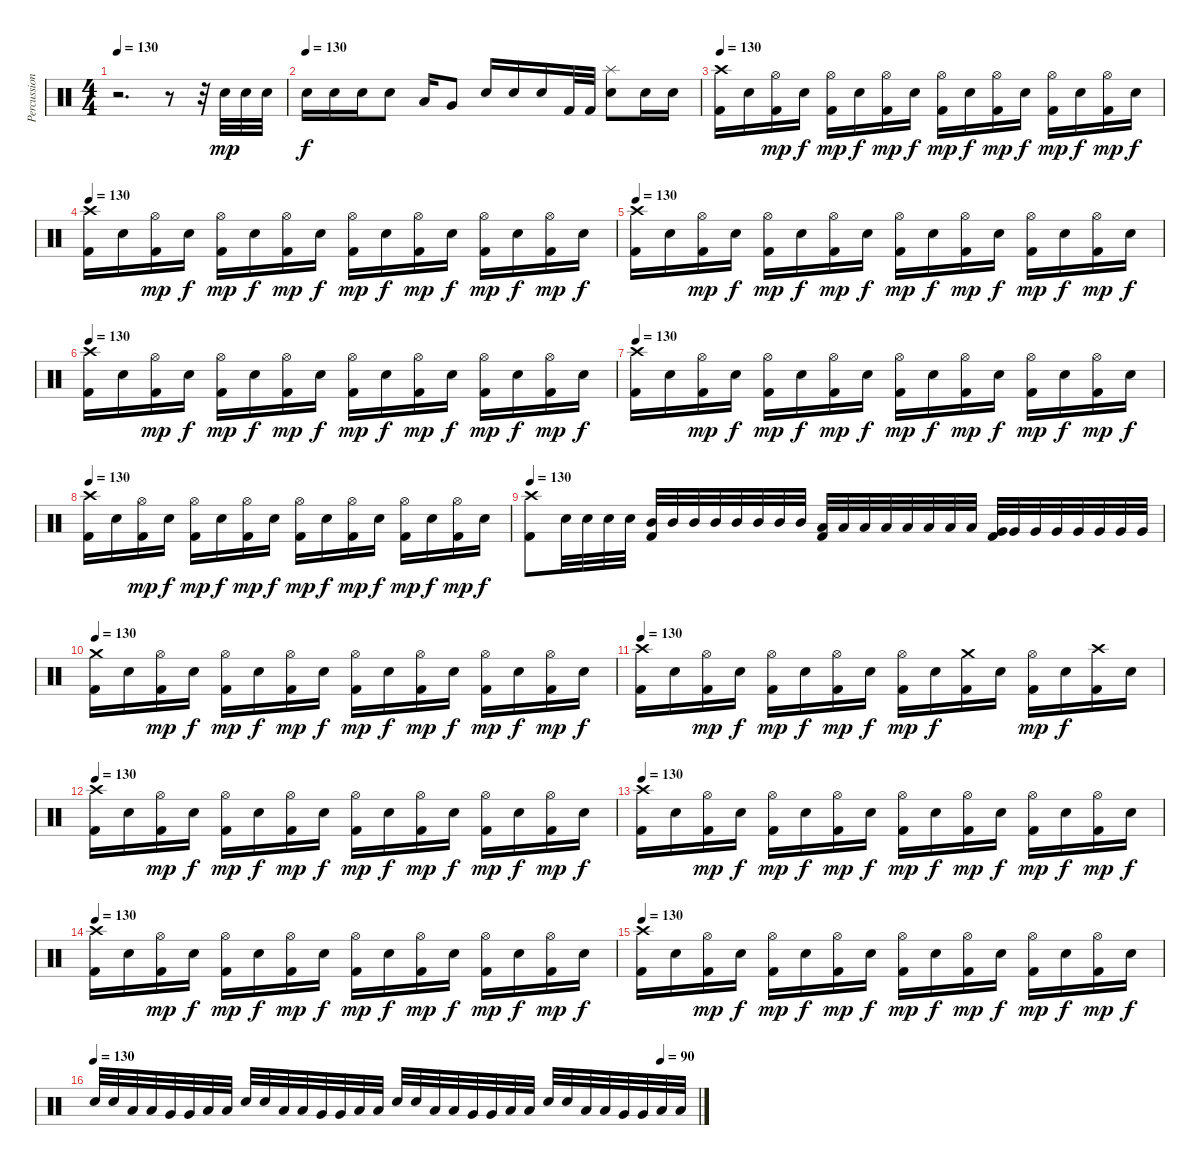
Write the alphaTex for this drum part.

\track ("Percussion" "Percussion") {instrument percussion}
\staff {score}
\articulation defaults
\ts (4 4)
\tempo 130
\clef neutral
\ks c
r.2{d dy f} r.8 r.32 "Electric Snare (hit)".32{dy mp} "Electric Snare (hit)".32 "Electric Snare (hit)".32 |
\tempo (130)
"Electric Snare (hit)".16{dy f} "Electric Snare (hit)".16 "Electric Snare (hit)".16 "Electric Snare (hit)".8 "Low Tom (hit)".16 "Very Low Tom (hit)".8 "Electric Snare (hit)".16 "Electric Snare (hit)".16 "Electric Snare (hit)".16 "Kick (hit) 2".32 "Kick (hit) 2".32 ("Splash (hit)" "Electric Snare (hit)").8 "Electric Snare (hit)".16 "Electric Snare (hit)".16 |
\tempo 130
("Crash high (hit)" "Kick (hit) 2").16 "Electric Snare (hit)".16 ("Hi-Hat (open)" "Kick (hit) 2").16{dy mp} "Electric Snare (hit)".16{dy f} ("Hi-Hat (open)" "Kick (hit) 2").16{dy mp} "Electric Snare (hit)".16{dy f} ("Hi-Hat (open)" "Kick (hit) 2").16{dy mp} "Electric Snare (hit)".16{dy f} ("Hi-Hat (open)" "Kick (hit) 2").16{dy mp} "Electric Snare (hit)".16{dy f} ("Hi-Hat (open)" "Kick (hit) 2").16{dy mp} "Electric Snare (hit)".16{dy f} ("Hi-Hat (open)" "Kick (hit) 2").16{dy mp} "Electric Snare (hit)".16{dy f} ("Hi-Hat (open)" "Kick (hit) 2").16{dy mp} "Electric Snare (hit)".16{dy f} |
\tempo 130
("Crash high (hit)" "Kick (hit) 2").16 "Electric Snare (hit)".16 ("Hi-Hat (open)" "Kick (hit) 2").16{dy mp} "Electric Snare (hit)".16{dy f} ("Hi-Hat (open)" "Kick (hit) 2").16{dy mp} "Electric Snare (hit)".16{dy f} ("Hi-Hat (open)" "Kick (hit) 2").16{dy mp} "Electric Snare (hit)".16{dy f} ("Hi-Hat (open)" "Kick (hit) 2").16{dy mp} "Electric Snare (hit)".16{dy f} ("Hi-Hat (open)" "Kick (hit) 2").16{dy mp} "Electric Snare (hit)".16{dy f} ("Hi-Hat (open)" "Kick (hit) 2").16{dy mp} "Electric Snare (hit)".16{dy f} ("Hi-Hat (open)" "Kick (hit) 2").16{dy mp} "Electric Snare (hit)".16{dy f} |
\tempo 130
("Crash high (hit)" "Kick (hit) 2").16 "Electric Snare (hit)".16 ("Hi-Hat (open)" "Kick (hit) 2").16{dy mp} "Electric Snare (hit)".16{dy f} ("Hi-Hat (open)" "Kick (hit) 2").16{dy mp} "Electric Snare (hit)".16{dy f} ("Hi-Hat (open)" "Kick (hit) 2").16{dy mp} "Electric Snare (hit)".16{dy f} ("Hi-Hat (open)" "Kick (hit) 2").16{dy mp} "Electric Snare (hit)".16{dy f} ("Hi-Hat (open)" "Kick (hit) 2").16{dy mp} "Electric Snare (hit)".16{dy f} ("Hi-Hat (open)" "Kick (hit) 2").16{dy mp} "Electric Snare (hit)".16{dy f} ("Hi-Hat (open)" "Kick (hit) 2").16{dy mp} "Electric Snare (hit)".16{dy f} |
\tempo 130
("Crash high (hit)" "Kick (hit) 2").16 "Electric Snare (hit)".16 ("Hi-Hat (open)" "Kick (hit) 2").16{dy mp} "Electric Snare (hit)".16{dy f} ("Hi-Hat (open)" "Kick (hit) 2").16{dy mp} "Electric Snare (hit)".16{dy f} ("Hi-Hat (open)" "Kick (hit) 2").16{dy mp} "Electric Snare (hit)".16{dy f} ("Hi-Hat (open)" "Kick (hit) 2").16{dy mp} "Electric Snare (hit)".16{dy f} ("Hi-Hat (open)" "Kick (hit) 2").16{dy mp} "Electric Snare (hit)".16{dy f} ("Hi-Hat (open)" "Kick (hit) 2").16{dy mp} "Electric Snare (hit)".16{dy f} ("Hi-Hat (open)" "Kick (hit) 2").16{dy mp} "Electric Snare (hit)".16{dy f} |
\tempo 130
("Crash high (hit)" "Kick (hit) 2").16 "Electric Snare (hit)".16 ("Hi-Hat (open)" "Kick (hit) 2").16{dy mp} "Electric Snare (hit)".16{dy f} ("Hi-Hat (open)" "Kick (hit) 2").16{dy mp} "Electric Snare (hit)".16{dy f} ("Hi-Hat (open)" "Kick (hit) 2").16{dy mp} "Electric Snare (hit)".16{dy f} ("Hi-Hat (open)" "Kick (hit) 2").16{dy mp} "Electric Snare (hit)".16{dy f} ("Hi-Hat (open)" "Kick (hit) 2").16{dy mp} "Electric Snare (hit)".16{dy f} ("Hi-Hat (open)" "Kick (hit) 2").16{dy mp} "Electric Snare (hit)".16{dy f} ("Hi-Hat (open)" "Kick (hit) 2").16{dy mp} "Electric Snare (hit)".16{dy f} |
\tempo 130
("Crash high (hit)" "Kick (hit) 2").16 "Electric Snare (hit)".16 ("Hi-Hat (open)" "Kick (hit) 2").16{dy mp} "Electric Snare (hit)".16{dy f} ("Hi-Hat (open)" "Kick (hit) 2").16{dy mp} "Electric Snare (hit)".16{dy f} ("Hi-Hat (open)" "Kick (hit) 2").16{dy mp} "Electric Snare (hit)".16{dy f} ("Hi-Hat (open)" "Kick (hit) 2").16{dy mp} "Electric Snare (hit)".16{dy f} ("Hi-Hat (open)" "Kick (hit) 2").16{dy mp} "Electric Snare (hit)".16{dy f} ("Hi-Hat (open)" "Kick (hit) 2").16{dy mp} "Electric Snare (hit)".16{dy f} ("Hi-Hat (open)" "Kick (hit) 2").16{dy mp} "Electric Snare (hit)".16{dy f} |
\tempo 130
("Crash high (hit)" "Kick (hit) 2").8 "Electric Snare (hit)".32 "Electric Snare (hit)".32 "Electric Snare (hit)".32 "Electric Snare (hit)".32 ("Mid Tom (hit)" "Kick (hit) 2").32 "Mid Tom (hit)".32 "Mid Tom (hit)".32 "Mid Tom (hit)".32 "Mid Tom (hit)".32 "Mid Tom (hit)".32 "Mid Tom (hit)".32 "Mid Tom (hit)".32 ("Low Tom (hit)" "Kick (hit) 2").32 "Low Tom (hit)".32 "Low Tom (hit)".32 "Low Tom (hit)".32 "Low Tom (hit)".32 "Low Tom (hit)".32 "Low Tom (hit)".32 "Low Tom (hit)".32 ("Very Low Tom (hit)" "Kick (hit) 2").32 "Very Low Tom (hit)".32 "Very Low Tom (hit)".32 "Very Low Tom (hit)".32 "Very Low Tom (hit)".32 "Very Low Tom (hit)".32 "Very Low Tom (hit)".32 "Very Low Tom (hit)".32 |
\tempo 130
("Crash medium (hit)" "Kick (hit) 2").16 "Electric Snare (hit)".16 ("Hi-Hat (open)" "Kick (hit) 2").16{dy mp} "Electric Snare (hit)".16{dy f} ("Hi-Hat (open)" "Kick (hit) 2").16{dy mp} "Electric Snare (hit)".16{dy f} ("Hi-Hat (open)" "Kick (hit) 2").16{dy mp} "Electric Snare (hit)".16{dy f} ("Hi-Hat (open)" "Kick (hit) 2").16{dy mp} "Electric Snare (hit)".16{dy f} ("Hi-Hat (open)" "Kick (hit) 2").16{dy mp} "Electric Snare (hit)".16{dy f} ("Hi-Hat (open)" "Kick (hit) 2").16{dy mp} "Electric Snare (hit)".16{dy f} ("Hi-Hat (open)" "Kick (hit) 2").16{dy mp} "Electric Snare (hit)".16{dy f} |
\tempo 130
("Crash high (hit)" "Kick (hit) 2").16 "Electric Snare (hit)".16 ("Hi-Hat (open)" "Kick (hit) 2").16{dy mp} "Electric Snare (hit)".16{dy f} ("Hi-Hat (open)" "Kick (hit) 2").16{dy mp} "Electric Snare (hit)".16{dy f} ("Hi-Hat (open)" "Kick (hit) 2").16{dy mp} "Electric Snare (hit)".16{dy f} ("Hi-Hat (open)" "Kick (hit) 2").16{dy mp} "Electric Snare (hit)".16{dy f} ("Crash medium (hit)" "Kick (hit) 2").16 "Electric Snare (hit)".16 ("Hi-Hat (open)" "Kick (hit) 2").16{dy mp} "Electric Snare (hit)".16{dy f} ("Crash high (hit)" "Kick (hit) 2").16 "Electric Snare (hit)".16 |
\tempo 130
("Crash high (hit)" "Kick (hit) 2").16 "Electric Snare (hit)".16 ("Hi-Hat (open)" "Kick (hit) 2").16{dy mp} "Electric Snare (hit)".16{dy f} ("Hi-Hat (open)" "Kick (hit) 2").16{dy mp} "Electric Snare (hit)".16{dy f} ("Hi-Hat (open)" "Kick (hit) 2").16{dy mp} "Electric Snare (hit)".16{dy f} ("Hi-Hat (open)" "Kick (hit) 2").16{dy mp} "Electric Snare (hit)".16{dy f} ("Hi-Hat (open)" "Kick (hit) 2").16{dy mp} "Electric Snare (hit)".16{dy f} ("Hi-Hat (open)" "Kick (hit) 2").16{dy mp} "Electric Snare (hit)".16{dy f} ("Hi-Hat (open)" "Kick (hit) 2").16{dy mp} "Electric Snare (hit)".16{dy f} |
\tempo 130
("Crash high (hit)" "Kick (hit) 2").16 "Electric Snare (hit)".16 ("Hi-Hat (open)" "Kick (hit) 2").16{dy mp} "Electric Snare (hit)".16{dy f} ("Hi-Hat (open)" "Kick (hit) 2").16{dy mp} "Electric Snare (hit)".16{dy f} ("Hi-Hat (open)" "Kick (hit) 2").16{dy mp} "Electric Snare (hit)".16{dy f} ("Hi-Hat (open)" "Kick (hit) 2").16{dy mp} "Electric Snare (hit)".16{dy f} ("Hi-Hat (open)" "Kick (hit) 2").16{dy mp} "Electric Snare (hit)".16{dy f} ("Hi-Hat (open)" "Kick (hit) 2").16{dy mp} "Electric Snare (hit)".16{dy f} ("Hi-Hat (open)" "Kick (hit) 2").16{dy mp} "Electric Snare (hit)".16{dy f} |
\tempo 130
("Crash high (hit)" "Kick (hit) 2").16 "Electric Snare (hit)".16 ("Hi-Hat (open)" "Kick (hit) 2").16{dy mp} "Electric Snare (hit)".16{dy f} ("Hi-Hat (open)" "Kick (hit) 2").16{dy mp} "Electric Snare (hit)".16{dy f} ("Hi-Hat (open)" "Kick (hit) 2").16{dy mp} "Electric Snare (hit)".16{dy f} ("Hi-Hat (open)" "Kick (hit) 2").16{dy mp} "Electric Snare (hit)".16{dy f} ("Hi-Hat (open)" "Kick (hit) 2").16{dy mp} "Electric Snare (hit)".16{dy f} ("Hi-Hat (open)" "Kick (hit) 2").16{dy mp} "Electric Snare (hit)".16{dy f} ("Hi-Hat (open)" "Kick (hit) 2").16{dy mp} "Electric Snare (hit)".16{dy f} |
\tempo 130
("Crash high (hit)" "Kick (hit) 2").16 "Electric Snare (hit)".16 ("Hi-Hat (open)" "Kick (hit) 2").16{dy mp} "Electric Snare (hit)".16{dy f} ("Hi-Hat (open)" "Kick (hit) 2").16{dy mp} "Electric Snare (hit)".16{dy f} ("Hi-Hat (open)" "Kick (hit) 2").16{dy mp} "Electric Snare (hit)".16{dy f} ("Hi-Hat (open)" "Kick (hit) 2").16{dy mp} "Electric Snare (hit)".16{dy f} ("Hi-Hat (open)" "Kick (hit) 2").16{dy mp} "Electric Snare (hit)".16{dy f} ("Hi-Hat (open)" "Kick (hit) 2").16{dy mp} "Electric Snare (hit)".16{dy f} ("Hi-Hat (open)" "Kick (hit) 2").16{dy mp} "Electric Snare (hit)".16{dy f} |
\tempo (90 0.9375)
\tempo (130)
"Electric Snare (hit)".32 "Electric Snare (hit)".32 "Low Tom (hit)".32 "Low Tom (hit)".32 "Very Low Tom (hit)".32 "Very Low Tom (hit)".32 "Low Floor Tom (hit)".32 "Low Floor Tom (hit)".32 "Electric Snare (hit)".32 "Electric Snare (hit)".32 "Low Tom (hit)".32 "Low Tom (hit)".32 "Very Low Tom (hit)".32 "Very Low Tom (hit)".32 "Low Floor Tom (hit)".32 "Low Floor Tom (hit)".32 "Electric Snare (hit)".32 "Electric Snare (hit)".32 "Low Tom (hit)".32 "Low Tom (hit)".32 "Very Low Tom (hit)".32 "Very Low Tom (hit)".32 "Low Floor Tom (hit)".32 "Low Floor Tom (hit)".32 "Electric Snare (hit)".32 "Electric Snare (hit)".32 "Low Tom (hit)".32 "Low Tom (hit)".32 "Very Low Tom (hit)".32 "Very Low Tom (hit)".32 "Low Floor Tom (hit)".32 "Low Floor Tom (hit)".32
